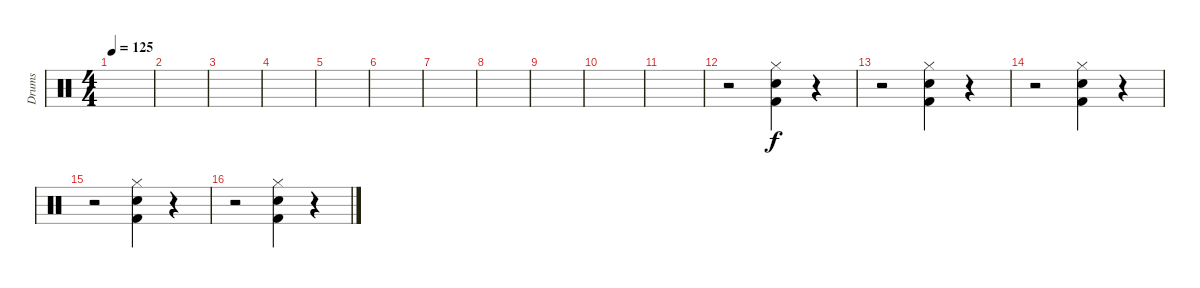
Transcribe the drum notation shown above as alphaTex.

\track ("Drums" "Drums") {instrument percussion}
\staff {score}
\articulation defaults
\ts (4 4)
\tempo 125
\clef neutral
\ks c
|
|
|
|
|
|
|
|
|
|
|
r.2 ("Hi-Hat (closed)" "Snare (hit) 2" "Kick (hit) 2").4 r.4 |
r.2 ("Hi-Hat (closed)" "Snare (hit) 2" "Kick (hit) 2").4 r.4 |
r.2 ("Hi-Hat (closed)" "Snare (hit) 2" "Kick (hit) 2").4 r.4 |
r.2 ("Hi-Hat (closed)" "Snare (hit) 2" "Kick (hit) 2").4 r.4 |
r.2 ("Hi-Hat (closed)" "Snare (hit) 2" "Kick (hit) 2").4 r.4
